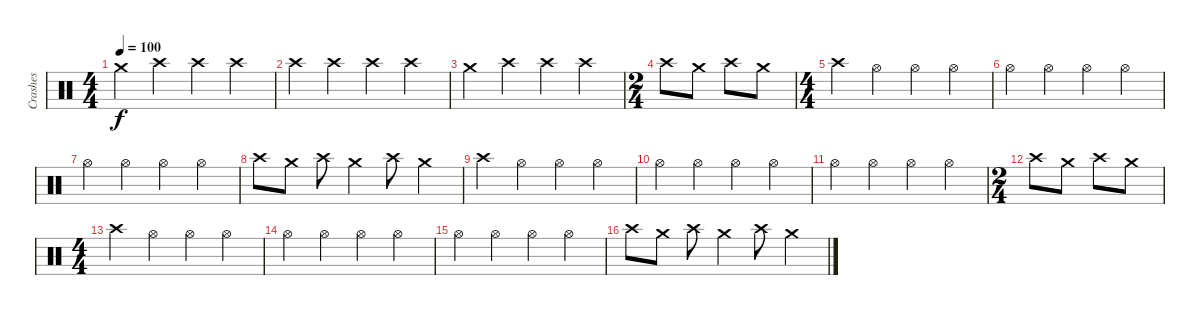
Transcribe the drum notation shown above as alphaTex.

\track ("Crashes" "Crashes") {instrument percussion}
\staff {score}
\articulation defaults
\ts (4 4)
\tempo 100
\clef neutral
\ks c "Crash medium (hit)".4{dy f} "Crash high (hit)".4 "Crash high (hit)".4 "Crash high (hit)".4
|
"Crash high (hit)".4 "Crash high (hit)".4 "Crash high (hit)".4 "Crash high (hit)".4 |
"Crash medium (hit)".4 "Crash high (hit)".4 "Crash high (hit)".4 "Crash high (hit)".4 |
\ts (2 4)
"Crash high (hit)".8 "Crash medium (hit)".8 "Crash high (hit)".8 "Crash medium (hit)".8 |
\ts (4 4)
"Crash high (hit)".4 "Hi-Hat (open)".4 "Hi-Hat (open)".4 "Hi-Hat (open)".4 |
"Hi-Hat (open)".4 "Hi-Hat (open)".4 "Hi-Hat (open)".4 "Hi-Hat (open)".4 |
"Hi-Hat (open)".4 "Hi-Hat (open)".4 "Hi-Hat (open)".4 "Hi-Hat (open)".4 |
"Crash high (hit)".8 "Crash medium (hit)".8 "Crash high (hit)".8 "Crash medium (hit)".4 "Crash high (hit)".8 "Crash medium (hit)".4 |
"Crash high (hit)".4 "Hi-Hat (open)".4 "Hi-Hat (open)".4 "Hi-Hat (open)".4 |
"Hi-Hat (open)".4 "Hi-Hat (open)".4 "Hi-Hat (open)".4 "Hi-Hat (open)".4 |
"Hi-Hat (open)".4 "Hi-Hat (open)".4 "Hi-Hat (open)".4 "Hi-Hat (open)".4 |
\ts (2 4)
"Crash high (hit)".8 "Crash medium (hit)".8 "Crash high (hit)".8 "Crash medium (hit)".8 |
\ts (4 4)
"Crash high (hit)".4 "Hi-Hat (open)".4 "Hi-Hat (open)".4 "Hi-Hat (open)".4 |
"Hi-Hat (open)".4 "Hi-Hat (open)".4 "Hi-Hat (open)".4 "Hi-Hat (open)".4 |
"Hi-Hat (open)".4 "Hi-Hat (open)".4 "Hi-Hat (open)".4 "Hi-Hat (open)".4 |
"Crash high (hit)".8 "Crash medium (hit)".8 "Crash high (hit)".8 "Crash medium (hit)".4 "Crash high (hit)".8 "Crash medium (hit)".4
